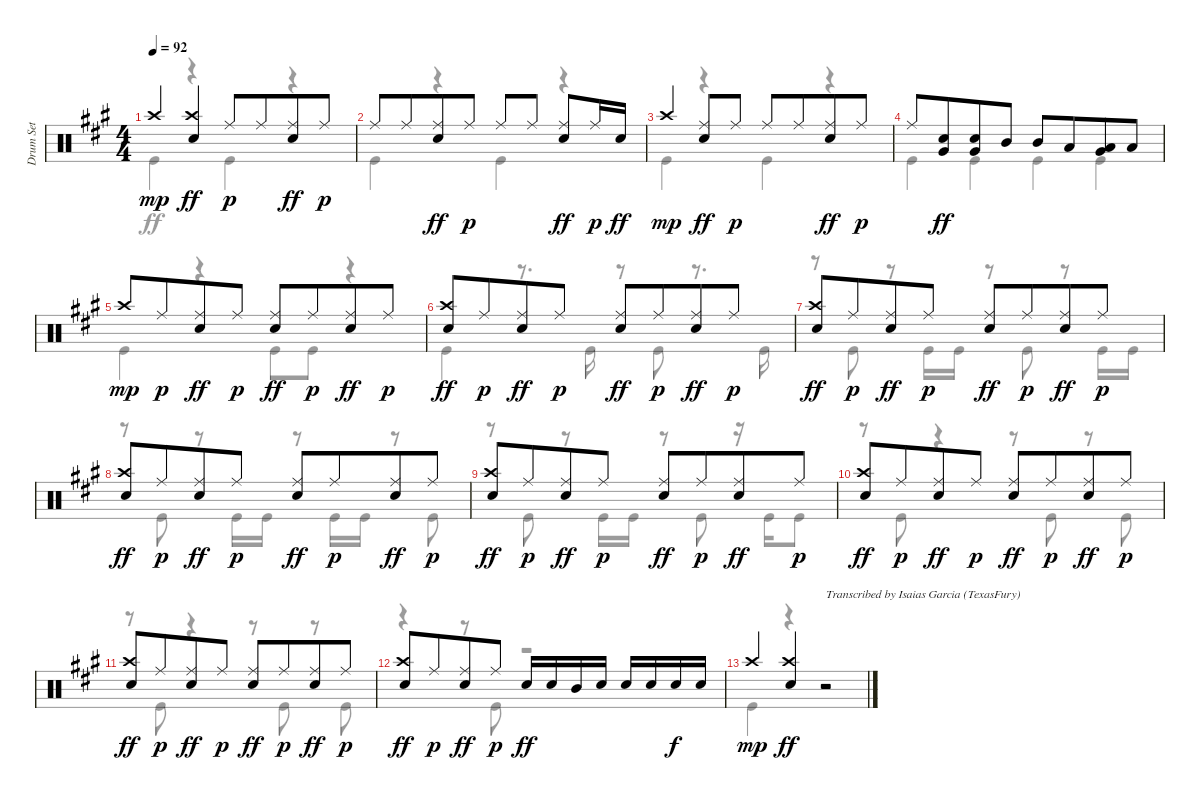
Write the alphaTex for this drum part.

\track ("Drum Set" "Drum Set") {instrument percussion}
\staff {score}
\articulation defaults
\voice
\ts (4 4)
\tempo 92
\clef neutral
\ks f#minor "Crash high (hit)".4{dy mp}
("Crash high (hit)" "Electric Snare (hit)").4{dy ff} "Ride (middle)".8{dy p} "Ride (middle)".8{beam merge} ("Ride (middle)" "Electric Snare (hit)").8{dy ff} "Ride (middle)".8{dy p} |
"Ride (middle)".8 "Ride (middle)".8{beam merge} ("Ride (middle)" "Electric Snare (hit)").8{dy ff} "Ride (middle)".8{dy p} "Ride (middle)".8 "Ride (middle)".8{beam split} ("Ride (middle)" "Electric Snare (hit)").8{dy ff} "Ride (middle)".16{dy p} "Electric Snare (hit)".16{dy ff} |
"Crash high (hit)".4{dy mp} ("Ride (middle)" "Electric Snare (hit)").8{dy ff} "Ride (middle)".8{dy p} "Ride (middle)".8 "Ride (middle)".8{beam merge} ("Ride (middle)" "Electric Snare (hit)").8{dy ff} "Ride (middle)".8{dy p} |
"Ride (middle)".8 ("Electric Snare (hit)" "Very Low Tom (hit)").8{dy ff beam merge} ("Electric Snare (hit)" "Very Low Tom (hit)").8 "Mid Tom (hit)".8 "Mid Tom (hit)".8 "Low Tom (hit)".8{beam merge} ("Low Tom (hit)" "Very Low Tom (hit)").8 "Low Tom (hit)".8 |
"Crash high (hit)".8{dy mp} "Ride (middle)".8{dy p beam merge} ("Ride (middle)" "Electric Snare (hit)").8{dy ff} "Ride (middle)".8{dy p} ("Ride (middle)" "Electric Snare (hit)").8{dy ff} "Ride (middle)".8{dy p beam merge} ("Ride (middle)" "Electric Snare (hit)").8{dy ff} "Ride (middle)".8{dy p} |
("Crash high (hit)" "Electric Snare (hit)").8{dy ff volume 6} "Ride (middle)".8{dy p beam merge} ("Ride (middle)" "Electric Snare (hit)").8{dy ff} "Ride (middle)".8{dy p} ("Ride (middle)" "Electric Snare (hit)").8{dy ff} "Ride (middle)".8{dy p beam merge} ("Ride (middle)" "Electric Snare (hit)").8{dy ff} "Ride (middle)".8{dy p} |
("Crash high (hit)" "Electric Snare (hit)").8{dy ff} "Ride (middle)".8{dy p beam merge} ("Ride (middle)" "Electric Snare (hit)").8{dy ff} "Ride (middle)".8{dy p} ("Ride (middle)" "Electric Snare (hit)").8{dy ff} "Ride (middle)".8{dy p beam merge} ("Ride (middle)" "Electric Snare (hit)").8{dy ff} "Ride (middle)".8{dy p} |
("Crash high (hit)" "Electric Snare (hit)").8{dy ff} "Ride (middle)".8{dy p beam merge} ("Ride (middle)" "Electric Snare (hit)").8{dy ff} "Ride (middle)".8{dy p} ("Ride (middle)" "Electric Snare (hit)").8{dy ff} "Ride (middle)".8{dy p beam merge} ("Ride (middle)" "Electric Snare (hit)").8{dy ff} "Ride (middle)".8{dy p} |
("Crash high (hit)" "Electric Snare (hit)").8{dy ff} "Ride (middle)".8{dy p beam merge} ("Ride (middle)" "Electric Snare (hit)").8{dy ff} "Ride (middle)".8{dy p} ("Ride (middle)" "Electric Snare (hit)").8{dy ff} "Ride (middle)".8{dy p beam merge} ("Ride (middle)" "Electric Snare (hit)").8{dy ff volume 0} "Ride (middle)".8{dy p} |
("Crash high (hit)" "Electric Snare (hit)").8{dy ff} "Ride (middle)".8{dy p beam merge} ("Ride (middle)" "Electric Snare (hit)").8{dy ff} "Ride (middle)".8{dy p} ("Ride (middle)" "Electric Snare (hit)").8{dy ff} "Ride (middle)".8{dy p beam merge} ("Ride (middle)" "Electric Snare (hit)").8{dy ff} "Ride (middle)".8{dy p} |
("Crash high (hit)" "Electric Snare (hit)").8{dy ff} "Ride (middle)".8{dy p beam merge} ("Ride (middle)" "Electric Snare (hit)").8{dy ff} "Ride (middle)".8{dy p} ("Ride (middle)" "Electric Snare (hit)").8{dy ff} "Ride (middle)".8{dy p beam merge} ("Ride (middle)" "Electric Snare (hit)").8{dy ff} "Ride (middle)".8{dy p} |
("Crash high (hit)" "Electric Snare (hit)").8{dy ff} "Ride (middle)".8{dy p beam merge} ("Ride (middle)" "Electric Snare (hit)").8{dy ff} "Ride (middle)".8{dy p} "Electric Snare (hit)".16{dy ff} "Electric Snare (hit)".16 "Mid Tom (hit)".16 "Electric Snare (hit)".16 "Electric Snare (hit)".16 "Electric Snare (hit)".16 "Electric Snare (hit)".16{dy f} "Electric Snare (hit)".16 |
"Crash high (hit)".4{dy mp} ("Crash high (hit)" "Electric Snare (hit)").4{dy ff} r.2{txt "Transcribed by Isaias Garcia (TexasFury)"}
\voice
\clef neutral
\ottava regular
\simile none
\ks f#minor "Kick (hit)".4{dy ff}
r.4 "Kick (hit)".4 r.4 |
"Kick (hit)".4 r.4 "Kick (hit)".4 r.4 |
"Kick (hit)".4 r.4 "Kick (hit)".4 r.4 |
"Kick (hit)".4 "Kick (hit)".4 "Kick (hit)".4 "Kick (hit)".4 |
"Kick (hit)".4 r.4 "Kick (hit)".8 "Kick (hit)".8 r.4 |
"Kick (hit)".4 r.8{d} "Kick (hit)".16 r.8 "Kick (hit)".8 r.8{d} "Kick (hit)".16 |
r.8 "Kick (hit)".8 r.8 "Kick (hit)".16 "Kick (hit)".16 r.8 "Kick (hit)".8 r.8 "Kick (hit)".16 "Kick (hit)".16 |
r.8 "Kick (hit)".8 r.8 "Kick (hit)".16 "Kick (hit)".16 r.8 "Kick (hit)".16 "Kick (hit)".16 r.8 "Kick (hit)".8 |
r.8 "Kick (hit)".8 r.8 "Kick (hit)".16 "Kick (hit)".16 r.8 "Kick (hit)".8 r.16 "Kick (hit)".16 "Kick (hit)".8 |
r.8 "Kick (hit)".8 r.4 r.8 "Kick (hit)".8 r.8 "Kick (hit)".8 |
r.8 "Kick (hit)".8 r.4 r.8 "Kick (hit)".8 r.8 "Kick (hit)".8 |
r.4 r.8 "Kick (hit)".8 r.2 |
"Kick (hit)".4 r.4 r.2
